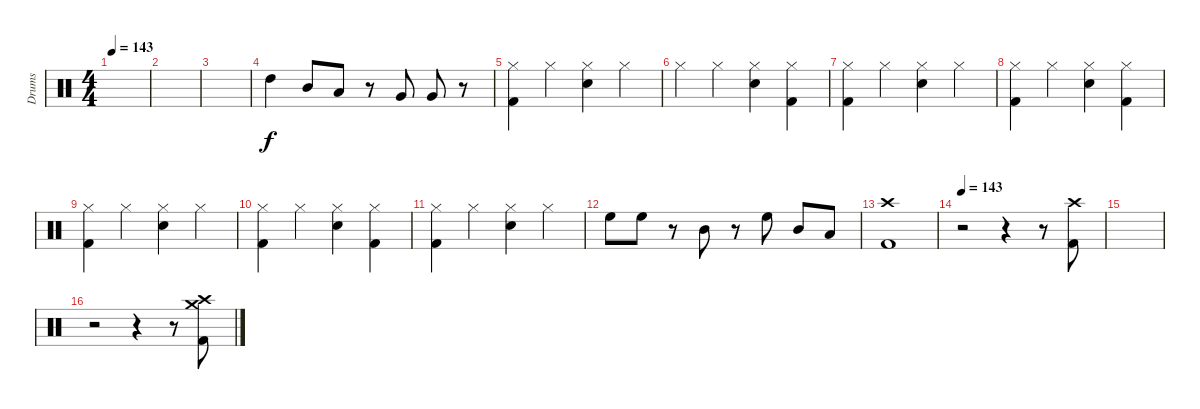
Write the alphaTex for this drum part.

\track ("Drums" "Drums") {instrument percussion}
\staff {score}
\articulation defaults
\ts (4 4)
\tempo 143
\clef neutral
\ks c
|
|
|
"High Tom (hit)".4{volume 9} "Mid Tom (hit)".8 "Low Tom (hit)".8 r.8 "Very Low Tom (hit)".8 "Very Low Tom (hit)".8 r.8 |
("Hi-Hat (closed)" "Kick (hit) 2").4 "Hi-Hat (closed)".4 ("Hi-Hat (closed)" "Electric Snare (hit)").4 "Hi-Hat (closed)".4 |
"Hi-Hat (closed)".4 "Hi-Hat (closed)".4 ("Hi-Hat (closed)" "Electric Snare (hit)").4 ("Hi-Hat (closed)" "Kick (hit) 2").4 |
("Hi-Hat (closed)" "Kick (hit) 2").4 "Hi-Hat (closed)".4 ("Hi-Hat (closed)" "Electric Snare (hit)").4 "Hi-Hat (closed)".4 |
("Hi-Hat (closed)" "Kick (hit) 2").4 "Hi-Hat (closed)".4 ("Hi-Hat (closed)" "Electric Snare (hit)").4 ("Hi-Hat (closed)" "Kick (hit) 2").4 |
("Hi-Hat (closed)" "Kick (hit) 2").4 "Hi-Hat (closed)".4 ("Hi-Hat (closed)" "Electric Snare (hit)").4 "Hi-Hat (closed)".4 |
("Hi-Hat (closed)" "Kick (hit) 2").4 "Hi-Hat (closed)".4 ("Hi-Hat (closed)" "Electric Snare (hit)").4 ("Hi-Hat (closed)" "Kick (hit) 2").4 |
("Hi-Hat (closed)" "Kick (hit) 2").4 "Hi-Hat (closed)".4 ("Hi-Hat (closed)" "Electric Snare (hit)").4 "Hi-Hat (closed)".4 |
"High Floor Tom (hit)".8{volume 8} "High Floor Tom (hit)".8 r.8 "Mid Tom (hit)".8 r.8 "High Floor Tom (hit)".8 "Mid Tom (hit)".8 "Low Tom (hit)".8 |
("Crash high (hit)" "Kick (hit) 2").1 |
\tempo 143
r.2 r.4 r.8 ("Crash high (hit)" "Kick (hit) 2").8 |
|
r.2 r.4 r.8 ("Crash high (hit)" "Crash medium (hit)" "Kick (hit) 2").8
